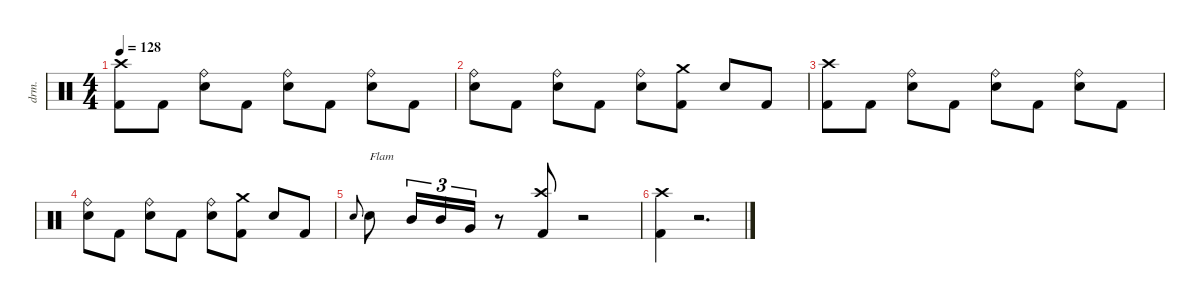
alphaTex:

\defaultSystemsLayout 4
\hideDynamics
\bracketExtendMode nobrackets
\otherSystemsTrackNameOrientation horizontal
\track ("Jimmy Chamberlin" "drm.") {instrument percussion}
\staff {score}
\articulation defaults
\ts (4 4)
\tempo 128
\clef neutral
\ks c
("Crash high (hit)" "Kick (hit) 2").8{dy mf beam Down} "Kick (hit) 2".8{beam Down} ("Ride (bell)" "Snare (hit) 2").8{beam Down} "Kick (hit) 2".8{beam Down} ("Ride (bell)" "Snare (hit) 2").8{beam Down} "Kick (hit) 2".8{beam Down} ("Ride (bell)" "Snare (hit) 2").8{beam Down} "Kick (hit) 2".8{beam Down} |
("Ride (bell)" "Snare (hit) 2").8{beam Down} "Kick (hit) 2".8{beam Down} ("Ride (bell)" "Snare (hit) 2").8{beam Down} "Kick (hit) 2".8{beam Down} ("Ride (bell)" "Snare (hit) 2").8{beam Down} ("Crash medium (hit)" "Kick (hit) 2").8{beam Down} "Snare (hit) 2".8{beam Up} "Kick (hit) 2".8{beam Up} |
("Crash high (hit)" "Kick (hit) 2").8{beam Down} "Kick (hit) 2".8{beam Down} ("Ride (bell)" "Snare (hit) 2").8{beam Down} "Kick (hit) 2".8{beam Down} ("Ride (bell)" "Snare (hit) 2").8{beam Down} "Kick (hit) 2".8{beam Down} ("Ride (bell)" "Snare (hit) 2").8{beam Down} "Kick (hit) 2".8{beam Down} |
("Ride (bell)" "Snare (hit) 2").8{beam Down} "Kick (hit) 2".8{beam Down} ("Ride (bell)" "Snare (hit) 2").8{beam Down} "Kick (hit) 2".8{beam Down} ("Ride (bell)" "Snare (hit) 2").8{beam Down} ("Crash medium (hit)" "Kick (hit) 2").8{beam Down} "Snare (hit) 2".8{beam Up} "Kick (hit) 2".8{beam Up} |
"Snare (hit) 2".8{gr onbeat beam Up} "Snare (hit) 2".8{txt "Flam" beam Down} "Mid Tom (hit)".16{tu (3 2) beam Up} "Mid Tom (hit)".16{tu (3 2) beam Up} "Very Low Tom (hit)".16{tu (3 2) beam Up} r.8{beam Up} ("Crash high (hit)" "Kick (hit) 2").8{beam Down} r.2{beam Down} |
("Crash high (hit)" "Kick (hit) 2").4{beam Down} r.2{d beam Down}
